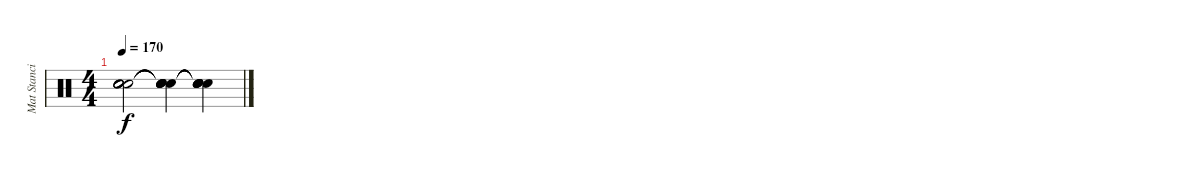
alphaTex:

\track ("Mat Stancioiu" "Mat Stanci") {instrument percussion}
\staff {score}
\articulation defaults
\ts (4 4)
\tempo 170
\clef neutral
\ks c
("Snare (hit)"{t} "Snare (hit)"{t} "Snare (hit)"{t} "Snare (hit)"{t} "Snare (hit)"{t}).2{dy f} ("Snare (hit)"{t} "Snare (hit)"{t} "Snare (hit)"{t} "Snare (hit)"{t} "Snare (hit)"{t}).4 ("Snare (hit)"{t} "Snare (hit)"{t} "Snare (hit)"{t} "Snare (hit)"{t} "Snare (hit)"{t}).4
